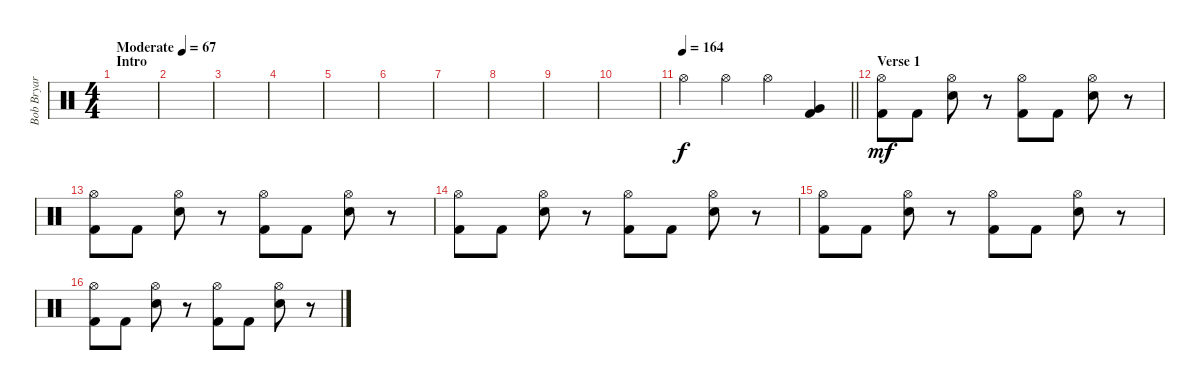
\track ("Bob Bryar" "Bob Bryar") {instrument percussion}
\staff {score}
\articulation defaults
\ts (4 4)
\section ("" "Intro")
\tempo (67 "Moderate")
\clef neutral
\ks c
|
|
|
|
|
|
|
|
|
|
\tempo 164
\barLineRight lightlight "Hi-Hat (open)".4 "Hi-Hat (open)".4 "Hi-Hat (open)".4
("Kick (hit) 2" "Very Low Tom (hit)").4{dy f} |
\section ("" "Verse 1")
("Hi-Hat (open)" "Kick (hit) 2").8{dy mf} "Kick (hit) 2".8 ("Hi-Hat (open)" "Electric Snare (hit)").8 r.8 ("Hi-Hat (open)" "Kick (hit) 2").8 "Kick (hit) 2".8 ("Hi-Hat (open)" "Electric Snare (hit)").8 r.8 |
("Hi-Hat (open)" "Kick (hit) 2").8 "Kick (hit) 2".8 ("Hi-Hat (open)" "Electric Snare (hit)").8 r.8 ("Hi-Hat (open)" "Kick (hit) 2").8 "Kick (hit) 2".8 ("Hi-Hat (open)" "Electric Snare (hit)").8 r.8 |
("Hi-Hat (open)" "Kick (hit) 2").8 "Kick (hit) 2".8 ("Hi-Hat (open)" "Electric Snare (hit)").8 r.8 ("Hi-Hat (open)" "Kick (hit) 2").8 "Kick (hit) 2".8 ("Hi-Hat (open)" "Electric Snare (hit)").8 r.8 |
("Hi-Hat (open)" "Kick (hit) 2").8 "Kick (hit) 2".8 ("Hi-Hat (open)" "Electric Snare (hit)").8 r.8 ("Hi-Hat (open)" "Kick (hit) 2").8 "Kick (hit) 2".8 ("Hi-Hat (open)" "Electric Snare (hit)").8 r.8 |
("Hi-Hat (open)" "Kick (hit) 2").8 "Kick (hit) 2".8 ("Hi-Hat (open)" "Electric Snare (hit)").8 r.8 ("Hi-Hat (open)" "Kick (hit) 2").8 "Kick (hit) 2".8 ("Hi-Hat (open)" "Electric Snare (hit)").8 r.8
